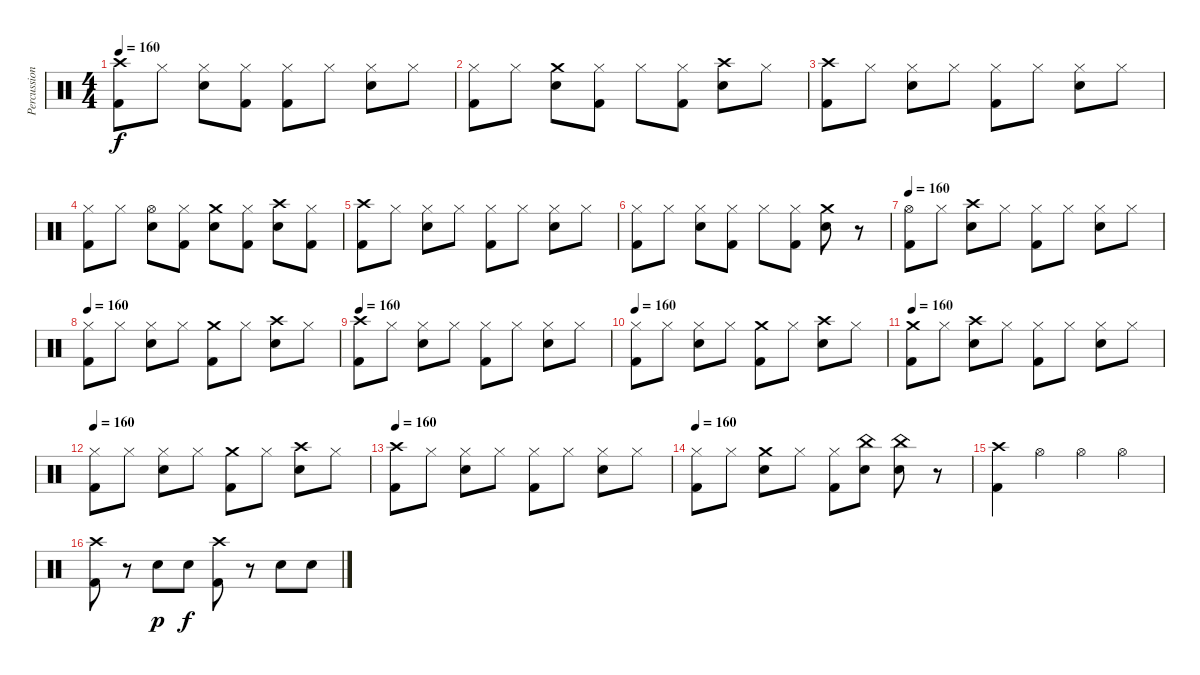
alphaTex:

\track ("Percussion" "Percussion") {instrument percussion}
\staff {score}
\articulation defaults
\ts (4 4)
\tempo 160
\clef neutral
\ks c
("Crash high (hit)" "Kick (hit) 2").8{dy f} "Hi-Hat (closed)".8 ("Hi-Hat (closed)" "Snare (hit) 2").8 ("Hi-Hat (closed)" "Kick (hit) 2").8 ("Hi-Hat (closed)" "Kick (hit) 2").8 "Hi-Hat (closed)".8 ("Hi-Hat (closed)" "Snare (hit) 2").8 "Hi-Hat (closed)".8 |
("Hi-Hat (closed)" "Kick (hit) 2").8 "Hi-Hat (closed)".8 ("Crash medium (hit)" "Snare (hit) 2").8 ("Hi-Hat (closed)" "Kick (hit) 2").8 "Hi-Hat (closed)".8 ("Hi-Hat (closed)" "Kick (hit) 2").8 ("Crash high (hit)" "Snare (hit) 2").8 "Hi-Hat (closed)".8 |
("Crash high (hit)" "Kick (hit) 2").8 "Hi-Hat (closed)".8 ("Hi-Hat (closed)" "Snare (hit) 2").8 "Hi-Hat (closed)".8 ("Hi-Hat (closed)" "Kick (hit) 2").8 "Hi-Hat (closed)".8 ("Hi-Hat (closed)" "Snare (hit) 2").8 "Hi-Hat (closed)".8 |
("Hi-Hat (closed)" "Kick (hit) 2").8 "Hi-Hat (closed)".8 ("Hi-Hat (open)" "Snare (hit) 2").8 ("Hi-Hat (closed)" "Kick (hit) 2").8 ("Crash medium (hit)" "Snare (hit) 2").8 ("Hi-Hat (closed)" "Kick (hit) 2").8 ("Crash high (hit)" "Snare (hit) 2").8 ("Hi-Hat (closed)" "Kick (hit) 2").8 |
("Crash high (hit)" "Kick (hit) 2").8 "Hi-Hat (closed)".8 ("Hi-Hat (closed)" "Snare (hit) 2").8 "Hi-Hat (closed)".8 ("Hi-Hat (closed)" "Kick (hit) 2").8 "Hi-Hat (closed)".8 ("Hi-Hat (closed)" "Snare (hit) 2").8 "Hi-Hat (closed)".8 |
("Hi-Hat (closed)" "Kick (hit) 2").8 "Hi-Hat (closed)".8 ("Hi-Hat (closed)" "Snare (hit) 2").8 ("Hi-Hat (closed)" "Kick (hit) 2").8 "Hi-Hat (closed)".8 ("Hi-Hat (closed)" "Kick (hit) 2").8 ("Crash medium (hit)" "Snare (hit) 2").8 r.8 |
\tempo 160
("Hi-Hat (open)" "Kick (hit) 2").8 "Hi-Hat (closed)".8 ("Crash high (hit)" "Snare (hit) 2").8 "Hi-Hat (closed)".8 ("Hi-Hat (closed)" "Kick (hit) 2").8 "Hi-Hat (closed)".8 ("Hi-Hat (closed)" "Snare (hit) 2").8 "Hi-Hat (closed)".8 |
\tempo 160
("Hi-Hat (closed)" "Kick (hit) 2").8 "Hi-Hat (closed)".8 ("Hi-Hat (closed)" "Snare (hit) 2").8 "Hi-Hat (closed)".8 ("Crash medium (hit)" "Kick (hit) 2").8 "Hi-Hat (closed)".8 ("Crash high (hit)" "Snare (hit) 2").8 "Hi-Hat (closed)".8 |
\tempo 160
("Crash high (hit)" "Kick (hit) 2").8 "Hi-Hat (closed)".8 ("Hi-Hat (closed)" "Snare (hit) 2").8 "Hi-Hat (closed)".8 ("Hi-Hat (closed)" "Kick (hit) 2").8 "Hi-Hat (closed)".8 ("Hi-Hat (closed)" "Snare (hit) 2").8 "Hi-Hat (closed)".8 |
\tempo 160
("Hi-Hat (closed)" "Kick (hit) 2").8 "Hi-Hat (closed)".8 ("Hi-Hat (closed)" "Snare (hit) 2").8 "Hi-Hat (closed)".8 ("Crash medium (hit)" "Kick (hit) 2").8 "Hi-Hat (closed)".8 ("Crash high (hit)" "Snare (hit) 2").8 "Hi-Hat (closed)".8 |
\tempo 160
("Crash medium (hit)" "Kick (hit) 2").8 "Hi-Hat (closed)".8 ("Crash high (hit)" "Snare (hit) 2").8 "Hi-Hat (closed)".8 ("Hi-Hat (closed)" "Kick (hit) 2").8 "Hi-Hat (closed)".8 ("Hi-Hat (closed)" "Snare (hit) 2").8 "Hi-Hat (closed)".8 |
\tempo 160
("Hi-Hat (closed)" "Kick (hit) 2").8 "Hi-Hat (closed)".8 ("Hi-Hat (closed)" "Snare (hit) 2").8 "Hi-Hat (closed)".8 ("Crash medium (hit)" "Kick (hit) 2").8 "Hi-Hat (closed)".8 ("Crash high (hit)" "Snare (hit) 2").8 "Hi-Hat (closed)".8 |
\tempo 160
("Crash high (hit)" "Kick (hit) 2").8 "Hi-Hat (closed)".8 ("Hi-Hat (closed)" "Snare (hit) 2").8 "Hi-Hat (closed)".8 ("Hi-Hat (closed)" "Kick (hit) 2").8 "Hi-Hat (closed)".8 ("Hi-Hat (closed)" "Snare (hit) 2").8 "Hi-Hat (closed)".8 |
\tempo 160
("Hi-Hat (closed)" "Kick (hit) 2").8 "Hi-Hat (closed)".8 ("Crash medium (hit)" "Snare (hit) 2").8 "Hi-Hat (closed)".8 ("Hi-Hat (closed)" "Kick (hit) 2").8 ("China (hit)" "Snare (hit) 2").8 ("China (hit)" "Snare (hit) 2").8 r.8 |
("Crash high (hit)" "Kick (hit) 2").4 "Hi-Hat (open)".4 "Hi-Hat (open)".4 "Hi-Hat (open)".4 |
("Crash high (hit)" "Kick (hit) 2").8 r.8 "Snare (hit) 2".8{dy p} "Snare (hit) 2".8{dy f} ("Crash high (hit)" "Kick (hit) 2").8 r.8 "Snare (hit) 2".8 "Snare (hit) 2".8
